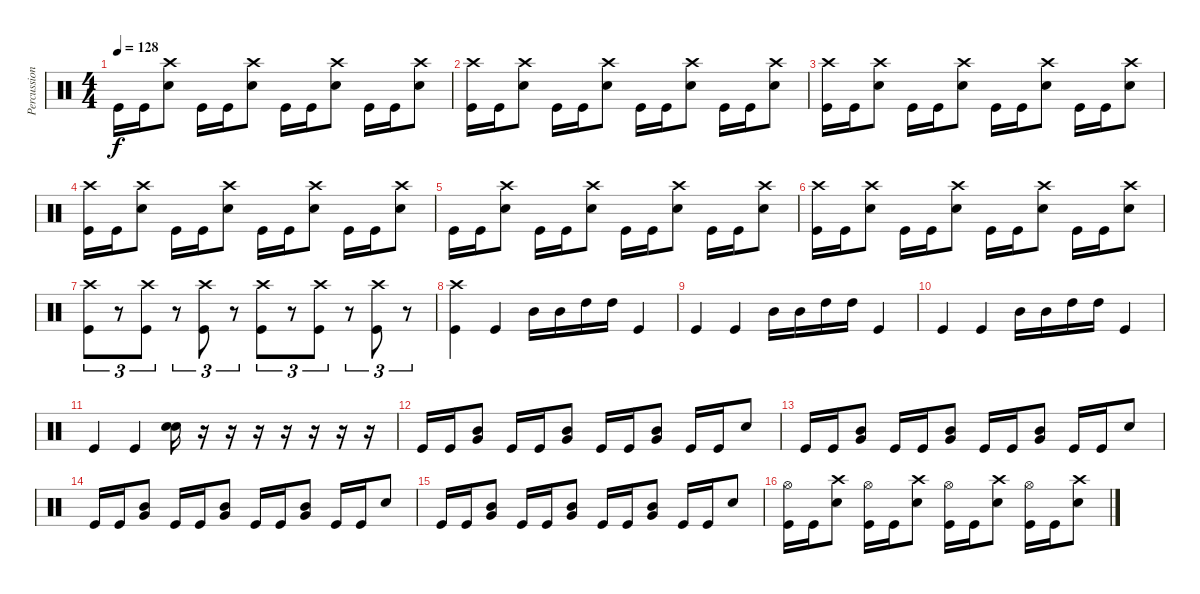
\track ("Percussion" "Percussion") {instrument percussion}
\staff {score}
\articulation defaults
\ts (4 4)
\tempo 128
\clef neutral
\ks c "Kick (hit)".16{dy f} "Kick (hit)".16
("Crash high (hit)" "Electric Snare (hit)").8 "Kick (hit)".16 "Kick (hit)".16 ("Crash high (hit)" "Electric Snare (hit)").8 "Kick (hit)".16 "Kick (hit)".16 ("Crash high (hit)" "Electric Snare (hit)").8 "Kick (hit)".16 "Kick (hit)".16 ("Crash high (hit)" "Electric Snare (hit)").8 |
("Crash high (hit)" "Kick (hit)").16 "Kick (hit)".16 ("Crash high (hit)" "Electric Snare (hit)").8 "Kick (hit)".16 "Kick (hit)".16 ("Crash high (hit)" "Electric Snare (hit)").8 "Kick (hit)".16 "Kick (hit)".16 ("Crash high (hit)" "Electric Snare (hit)").8 "Kick (hit)".16 "Kick (hit)".16 ("Crash high (hit)" "Electric Snare (hit)").8 |
("Crash high (hit)" "Kick (hit)").16 "Kick (hit)".16 ("Crash high (hit)" "Electric Snare (hit)").8 "Kick (hit)".16 "Kick (hit)".16 ("Crash high (hit)" "Electric Snare (hit)").8 "Kick (hit)".16 "Kick (hit)".16 ("Crash high (hit)" "Electric Snare (hit)").8 "Kick (hit)".16 "Kick (hit)".16 ("Crash high (hit)" "Electric Snare (hit)").8 |
("Crash high (hit)" "Kick (hit)").16 "Kick (hit)".16 ("Crash high (hit)" "Electric Snare (hit)").8 "Kick (hit)".16 "Kick (hit)".16 ("Crash high (hit)" "Electric Snare (hit)").8 "Kick (hit)".16 "Kick (hit)".16 ("Crash high (hit)" "Electric Snare (hit)").8 "Kick (hit)".16 "Kick (hit)".16 ("Crash high (hit)" "Electric Snare (hit)").8 |
"Kick (hit)".16 "Kick (hit)".16 ("Crash high (hit)" "Electric Snare (hit)").8 "Kick (hit)".16 "Kick (hit)".16 ("Crash high (hit)" "Electric Snare (hit)").8 "Kick (hit)".16 "Kick (hit)".16 ("Crash high (hit)" "Electric Snare (hit)").8 "Kick (hit)".16 "Kick (hit)".16 ("Crash high (hit)" "Electric Snare (hit)").8 |
("Crash high (hit)" "Kick (hit)").16 "Kick (hit)".16 ("Crash high (hit)" "Electric Snare (hit)").8 "Kick (hit)".16 "Kick (hit)".16 ("Crash high (hit)" "Electric Snare (hit)").8 "Kick (hit)".16 "Kick (hit)".16 ("Crash high (hit)" "Electric Snare (hit)").8 "Kick (hit)".16 "Kick (hit)".16 ("Crash high (hit)" "Electric Snare (hit)").8 |
("Crash high (hit)" "Kick (hit)").8{tu (3 2)} r.8{tu (3 2)} ("Crash high (hit)" "Kick (hit)").8{tu (3 2)} r.8{tu (3 2)} ("Crash high (hit)" "Kick (hit)").8{tu (3 2)} r.8{tu (3 2)} ("Crash high (hit)" "Kick (hit)").8{tu (3 2)} r.8{tu (3 2)} ("Crash high (hit)" "Kick (hit)").8{tu (3 2)} r.8{tu (3 2)} ("Crash high (hit)" "Kick (hit)").8{tu (3 2)} r.8{tu (3 2)} |
("Crash high (hit)" "Kick (hit)").4 "Kick (hit)".4 "Mid Tom (hit)".16 "Mid Tom (hit)".16 "High Tom (hit)".16 "High Tom (hit)".16 "Kick (hit)".4 |
"Kick (hit)".4 "Kick (hit)".4 "Mid Tom (hit)".16 "Mid Tom (hit)".16 "High Tom (hit)".16 "High Tom (hit)".16 "Kick (hit)".4 |
"Kick (hit)".4 "Kick (hit)".4 "Mid Tom (hit)".16 "Mid Tom (hit)".16 "High Tom (hit)".16 "High Tom (hit)".16 "Kick (hit)".4 |
"Kick (hit)".4 "Kick (hit)".4 ("Electric Snare (hit)" "Electric Snare (hit)").16 r.16 r.16 r.16 r.16 r.16 r.16 r.16 |
"Kick (hit)".16 "Kick (hit)".16 ("Very Low Tom (hit)" "Mid Tom (hit)").8 "Kick (hit)".16 "Kick (hit)".16 ("Very Low Tom (hit)" "Mid Tom (hit)").8 "Kick (hit)".16 "Kick (hit)".16 ("Very Low Tom (hit)" "Mid Tom (hit)").8 "Kick (hit)".16 "Kick (hit)".16 "Electric Snare (hit)".8 |
"Kick (hit)".16 "Kick (hit)".16 ("Very Low Tom (hit)" "Mid Tom (hit)").8 "Kick (hit)".16 "Kick (hit)".16 ("Very Low Tom (hit)" "Mid Tom (hit)").8 "Kick (hit)".16 "Kick (hit)".16 ("Very Low Tom (hit)" "Mid Tom (hit)").8 "Kick (hit)".16 "Kick (hit)".16 "Electric Snare (hit)".8 |
"Kick (hit)".16 "Kick (hit)".16 ("Very Low Tom (hit)" "Mid Tom (hit)").8 "Kick (hit)".16 "Kick (hit)".16 ("Very Low Tom (hit)" "Mid Tom (hit)").8 "Kick (hit)".16 "Kick (hit)".16 ("Very Low Tom (hit)" "Mid Tom (hit)").8 "Kick (hit)".16 "Kick (hit)".16 "Electric Snare (hit)".8 |
"Kick (hit)".16 "Kick (hit)".16 ("Very Low Tom (hit)" "Mid Tom (hit)").8 "Kick (hit)".16 "Kick (hit)".16 ("Very Low Tom (hit)" "Mid Tom (hit)").8 "Kick (hit)".16 "Kick (hit)".16 ("Very Low Tom (hit)" "Mid Tom (hit)").8 "Kick (hit)".16 "Kick (hit)".16 "Electric Snare (hit)".8 |
("Hi-Hat (open)" "Kick (hit)").16 "Kick (hit)".16 ("Crash high (hit)" "Electric Snare (hit)").8 ("Hi-Hat (open)" "Kick (hit)").16 "Kick (hit)".16 ("Crash high (hit)" "Electric Snare (hit)").8 ("Hi-Hat (open)" "Kick (hit)").16 "Kick (hit)".16 ("Crash high (hit)" "Electric Snare (hit)").8 ("Hi-Hat (open)" "Kick (hit)").16 "Kick (hit)".16 ("Crash high (hit)" "Electric Snare (hit)").8
